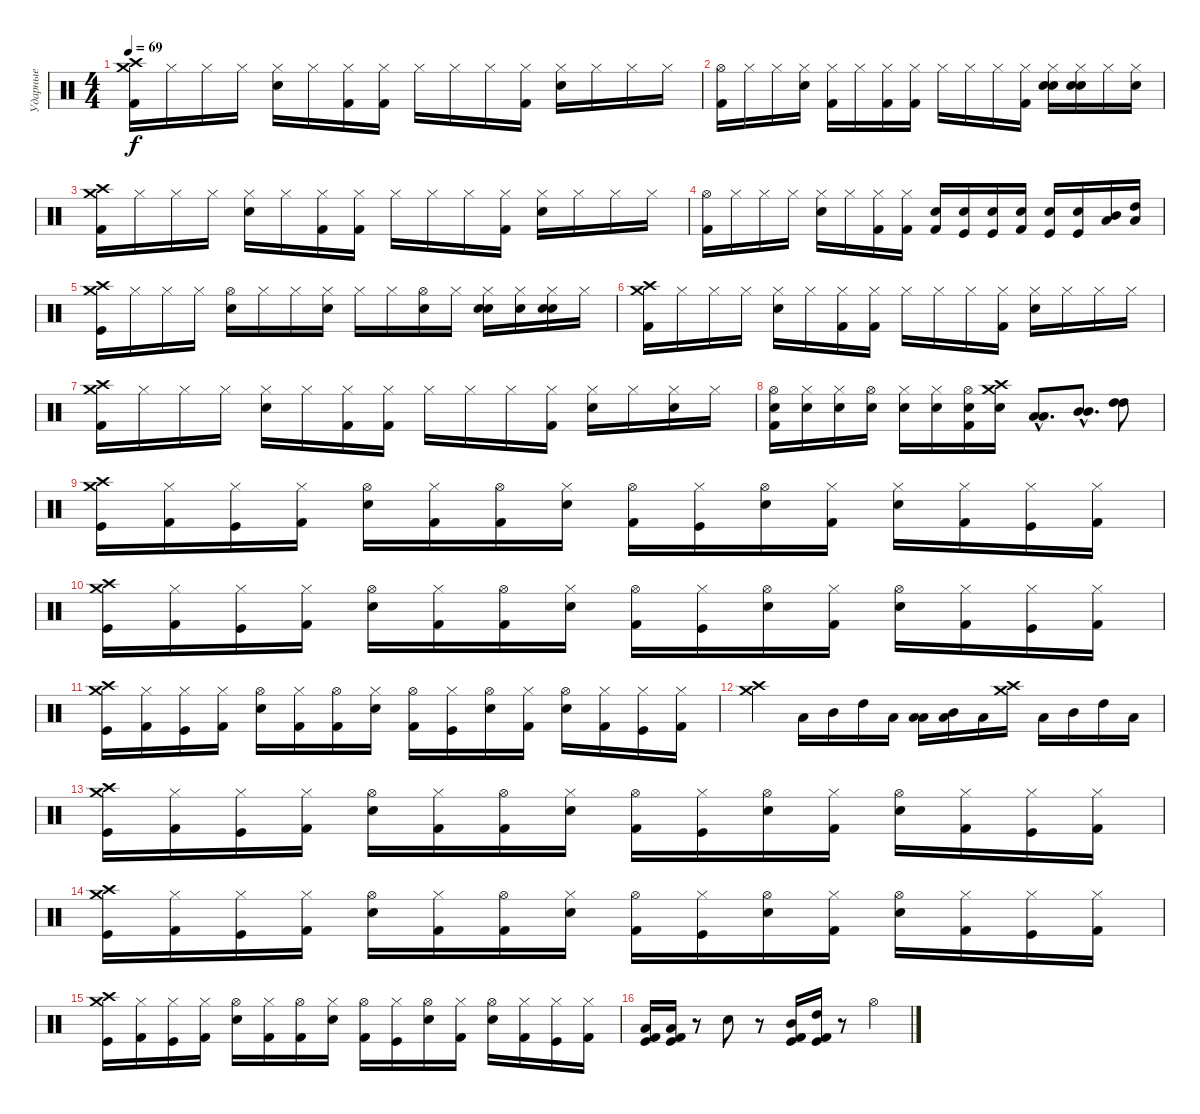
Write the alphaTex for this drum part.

\track ("Ударные" "Ударные") {instrument percussion}
\staff {score}
\articulation defaults
\ts (4 4)
\tempo 69
\clef neutral
\ks c
("Crash high (hit)" "Crash medium (hit)" "Kick (hit) 2").16{dy f} "Hi-Hat (closed)".16 "Hi-Hat (closed)".16 "Hi-Hat (closed)".16 ("Hi-Hat (closed)" "Snare (hit) 2").16 "Hi-Hat (closed)".16 ("Hi-Hat (closed)" "Kick (hit) 2").16 ("Hi-Hat (closed)" "Kick (hit) 2").16 "Hi-Hat (closed)".16 "Hi-Hat (closed)".16 "Hi-Hat (closed)".16 ("Hi-Hat (closed)" "Kick (hit) 2").16 ("Hi-Hat (closed)" "Snare (hit) 2").16 "Hi-Hat (closed)".16 "Hi-Hat (closed)".16 "Hi-Hat (closed)".16 |
("Hi-Hat (open)" "Kick (hit) 2").16 "Hi-Hat (closed)".16 "Hi-Hat (closed)".16 ("Hi-Hat (closed)" "Snare (hit) 2").16 ("Hi-Hat (closed)" "Kick (hit) 2").16 "Hi-Hat (closed)".16 ("Hi-Hat (closed)" "Kick (hit) 2").16 ("Hi-Hat (closed)" "Kick (hit) 2").16 "Hi-Hat (closed)".16 "Hi-Hat (closed)".16 "Hi-Hat (closed)".16 ("Hi-Hat (closed)" "Kick (hit) 2").16 ("Hi-Hat (closed)" "Snare (hit) 2" "Snare (hit) 2").16 ("Hi-Hat (closed)" "Snare (hit) 2" "Snare (hit) 2").16 "Hi-Hat (closed)".16 ("Hi-Hat (closed)" "Snare (hit) 2").16 |
("Crash high (hit)" "Crash medium (hit)" "Kick (hit) 2").16 "Hi-Hat (closed)".16 "Hi-Hat (closed)".16 "Hi-Hat (closed)".16 ("Hi-Hat (closed)" "Snare (hit) 2").16 "Hi-Hat (closed)".16 ("Hi-Hat (closed)" "Kick (hit) 2").16 ("Hi-Hat (closed)" "Kick (hit) 2").16 "Hi-Hat (closed)".16 "Hi-Hat (closed)".16 "Hi-Hat (closed)".16 ("Hi-Hat (closed)" "Kick (hit) 2").16 ("Hi-Hat (closed)" "Snare (hit) 2").16 "Hi-Hat (closed)".16 "Hi-Hat (closed)".16 "Hi-Hat (closed)".16 |
("Hi-Hat (open)" "Kick (hit) 2").16 "Hi-Hat (closed)".16 "Hi-Hat (closed)".16 "Hi-Hat (closed)".16 ("Hi-Hat (closed)" "Snare (hit) 2").16 "Hi-Hat (closed)".16 ("Hi-Hat (closed)" "Kick (hit) 2").16 ("Hi-Hat (closed)" "Kick (hit) 2").16 ("Snare (hit) 2" "Kick (hit) 2").16 ("Snare (hit) 2" "Kick (hit)").16 ("Snare (hit) 2" "Kick (hit)").16 ("Snare (hit) 2" "Kick (hit) 2").16 ("Snare (hit) 2" "Kick (hit)").16 ("Snare (hit) 2" "Kick (hit)").16 ("Low Floor Tom (hit)" "Mid Tom (hit)").16 ("High Tom (hit)" "Low Tom (hit)").16 |
("Crash high (hit)" "Crash medium (hit)" "Kick (hit)").16 "Hi-Hat (closed)".16 "Hi-Hat (closed)".16 "Hi-Hat (closed)".16 ("Hi-Hat (open)" "Snare (hit) 2").16 "Hi-Hat (closed)".16 "Hi-Hat (closed)".16 ("Hi-Hat (closed)" "Snare (hit) 2").16 "Hi-Hat (closed)".16 "Hi-Hat (closed)".16 ("Hi-Hat (open)" "Snare (hit) 2").16 "Hi-Hat (closed)".16 ("Hi-Hat (closed)" "Snare (hit) 2" "Snare (hit) 2").16 ("Hi-Hat (closed)" "Snare (hit) 2").16 ("Hi-Hat (closed)" "Snare (hit) 2" "Snare (hit) 2").16 "Hi-Hat (closed)".16 |
("Crash high (hit)" "Crash medium (hit)" "Kick (hit) 2").16 "Hi-Hat (closed)".16 "Hi-Hat (closed)".16 "Hi-Hat (closed)".16 ("Hi-Hat (closed)" "Snare (hit) 2").16 "Hi-Hat (closed)".16 ("Hi-Hat (closed)" "Kick (hit) 2").16 ("Hi-Hat (closed)" "Kick (hit) 2").16 "Hi-Hat (closed)".16 "Hi-Hat (closed)".16 "Hi-Hat (closed)".16 ("Hi-Hat (closed)" "Kick (hit) 2").16 ("Hi-Hat (closed)" "Snare (hit) 2").16 "Hi-Hat (closed)".16 "Hi-Hat (closed)".16 "Hi-Hat (closed)".16 |
("Crash high (hit)" "Crash medium (hit)" "Kick (hit) 2").16 "Hi-Hat (closed)".16 "Hi-Hat (closed)".16 "Hi-Hat (closed)".16 ("Hi-Hat (closed)" "Snare (hit) 2").16 "Hi-Hat (closed)".16 ("Hi-Hat (closed)" "Kick (hit) 2").16 ("Hi-Hat (closed)" "Kick (hit) 2").16 "Hi-Hat (closed)".16 "Hi-Hat (closed)".16 "Hi-Hat (closed)".16 ("Hi-Hat (closed)" "Kick (hit) 2").16 ("Hi-Hat (closed)" "Snare (hit) 2").16 "Hi-Hat (closed)".16 ("Hi-Hat (closed)" "Snare (hit) 2").16 "Hi-Hat (closed)".16 |
("Hi-Hat (open)" "Snare (hit) 2" "Kick (hit) 2").16 ("Hi-Hat (closed)" "Snare (hit) 2").16 ("Hi-Hat (closed)" "Snare (hit) 2").16 ("Hi-Hat (open)" "Snare (hit) 2").16 ("Hi-Hat (closed)" "Snare (hit) 2").16 ("Hi-Hat (closed)" "Snare (hit) 2").16 ("Hi-Hat (open)" "Snare (hit) 2" "Kick (hit) 2").16 ("Crash high (hit)" "Crash medium (hit)" "Snare (hit) 2").16 ("Low Tom (hit)" "Low Tom (hit)"{hac}).8{d} ("Mid Tom (hit)" "Mid Tom (hit)"{hac}).8{d} ("High Tom (hit)" "High Tom (hit)").8 |
("Crash high (hit)" "Crash medium (hit)" "Kick (hit)").16 ("Hi-Hat (closed)" "Kick (hit) 2").16 ("Hi-Hat (closed)" "Kick (hit)").16 ("Hi-Hat (closed)" "Kick (hit) 2").16 ("Hi-Hat (open)" "Snare (hit) 2").16 ("Hi-Hat (closed)" "Kick (hit) 2").16 ("Hi-Hat (open)" "Kick (hit) 2").16 ("Hi-Hat (closed)" "Snare (hit) 2").16 ("Hi-Hat (open)" "Kick (hit) 2").16 ("Hi-Hat (closed)" "Kick (hit)").16 ("Hi-Hat (open)" "Snare (hit) 2").16 ("Hi-Hat (closed)" "Kick (hit) 2").16 ("Hi-Hat (closed)" "Snare (hit) 2").16 ("Hi-Hat (closed)" "Kick (hit) 2").16 ("Hi-Hat (closed)" "Kick (hit)").16 ("Hi-Hat (closed)" "Kick (hit) 2").16 |
("Crash high (hit)" "Crash medium (hit)" "Kick (hit)").16 ("Hi-Hat (closed)" "Kick (hit) 2").16 ("Hi-Hat (closed)" "Kick (hit)").16 ("Hi-Hat (closed)" "Kick (hit) 2").16 ("Hi-Hat (open)" "Snare (hit) 2").16 ("Hi-Hat (closed)" "Kick (hit) 2").16 ("Hi-Hat (open)" "Kick (hit) 2").16 ("Hi-Hat (closed)" "Snare (hit) 2").16 ("Hi-Hat (open)" "Kick (hit) 2").16 ("Hi-Hat (closed)" "Kick (hit)").16 ("Hi-Hat (open)" "Snare (hit) 2").16 ("Hi-Hat (closed)" "Kick (hit) 2").16 ("Hi-Hat (open)" "Snare (hit) 2").16 ("Hi-Hat (closed)" "Kick (hit) 2").16 ("Hi-Hat (closed)" "Kick (hit)").16 ("Hi-Hat (closed)" "Kick (hit) 2").16 |
("Crash high (hit)" "Crash medium (hit)" "Kick (hit)").16 ("Hi-Hat (closed)" "Kick (hit) 2").16 ("Hi-Hat (closed)" "Kick (hit)").16 ("Hi-Hat (closed)" "Kick (hit) 2").16 ("Hi-Hat (open)" "Snare (hit) 2").16 ("Hi-Hat (closed)" "Kick (hit) 2").16 ("Hi-Hat (open)" "Kick (hit) 2").16 ("Hi-Hat (closed)" "Snare (hit) 2").16 ("Hi-Hat (open)" "Kick (hit) 2").16 ("Hi-Hat (closed)" "Kick (hit)").16 ("Hi-Hat (open)" "Snare (hit) 2").16 ("Hi-Hat (closed)" "Kick (hit) 2").16 ("Hi-Hat (open)" "Snare (hit) 2").16 ("Hi-Hat (closed)" "Kick (hit) 2").16 ("Hi-Hat (closed)" "Kick (hit)").16 ("Hi-Hat (closed)" "Kick (hit) 2").16 |
("Crash high (hit)" "Crash medium (hit)").4 "Low Floor Tom (hit)".16 "Mid Tom (hit)".16 "High Tom (hit)".16 "Low Floor Tom (hit)".16 ("Low Tom (hit)" "Low Floor Tom (hit)").16 ("Low Tom (hit)" "Mid Tom (hit)").16 "Low Tom (hit)".16 ("Crash high (hit)" "Crash medium (hit)").16 "Low Floor Tom (hit)".16 "Mid Tom (hit)".16 "High Tom (hit)".16 "Low Tom (hit)".16 |
("Crash high (hit)" "Crash medium (hit)" "Kick (hit)").16 ("Hi-Hat (closed)" "Kick (hit) 2").16 ("Hi-Hat (closed)" "Kick (hit)").16 ("Hi-Hat (closed)" "Kick (hit) 2").16 ("Hi-Hat (open)" "Snare (hit) 2").16 ("Hi-Hat (closed)" "Kick (hit) 2").16 ("Hi-Hat (open)" "Kick (hit) 2").16 ("Hi-Hat (closed)" "Snare (hit) 2").16 ("Hi-Hat (open)" "Kick (hit) 2").16 ("Hi-Hat (closed)" "Kick (hit)").16 ("Hi-Hat (open)" "Snare (hit) 2").16 ("Hi-Hat (closed)" "Kick (hit) 2").16 ("Hi-Hat (open)" "Snare (hit) 2").16 ("Hi-Hat (closed)" "Kick (hit) 2").16 ("Hi-Hat (closed)" "Kick (hit)").16 ("Hi-Hat (closed)" "Kick (hit) 2").16 |
("Crash high (hit)" "Crash medium (hit)" "Kick (hit)").16 ("Hi-Hat (closed)" "Kick (hit) 2").16 ("Hi-Hat (closed)" "Kick (hit)").16 ("Hi-Hat (closed)" "Kick (hit) 2").16 ("Hi-Hat (open)" "Snare (hit) 2").16 ("Hi-Hat (closed)" "Kick (hit) 2").16 ("Hi-Hat (open)" "Kick (hit) 2").16 ("Hi-Hat (closed)" "Snare (hit) 2").16 ("Hi-Hat (open)" "Kick (hit) 2").16 ("Hi-Hat (closed)" "Kick (hit)").16 ("Hi-Hat (open)" "Snare (hit) 2").16 ("Hi-Hat (closed)" "Kick (hit) 2").16 ("Hi-Hat (open)" "Snare (hit) 2").16 ("Hi-Hat (closed)" "Kick (hit) 2").16 ("Hi-Hat (closed)" "Kick (hit)").16 ("Hi-Hat (closed)" "Kick (hit) 2").16 |
("Crash high (hit)" "Crash medium (hit)" "Kick (hit)").16 ("Hi-Hat (closed)" "Kick (hit) 2").16 ("Hi-Hat (closed)" "Kick (hit)").16 ("Hi-Hat (closed)" "Kick (hit) 2").16 ("Hi-Hat (open)" "Snare (hit) 2").16 ("Hi-Hat (closed)" "Kick (hit) 2").16 ("Hi-Hat (open)" "Kick (hit) 2").16 ("Hi-Hat (closed)" "Snare (hit) 2").16 ("Hi-Hat (open)" "Kick (hit) 2").16 ("Hi-Hat (closed)" "Kick (hit)").16 ("Hi-Hat (open)" "Snare (hit) 2").16 ("Hi-Hat (closed)" "Kick (hit) 2").16 ("Hi-Hat (open)" "Snare (hit) 2").16 ("Hi-Hat (closed)" "Kick (hit) 2").16 ("Hi-Hat (closed)" "Kick (hit)").16 ("Hi-Hat (closed)" "Kick (hit) 2").16 |
("Low Floor Tom (hit)" "Kick (hit)" "Kick (hit) 2").16 ("Low Tom (hit)" "Kick (hit)" "Kick (hit) 2").16 r.8 "Snare (hit) 2".8 r.8 ("Mid Tom (hit)" "Kick (hit)" "Kick (hit) 2").16 ("High Tom (hit)" "Kick (hit)" "Kick (hit) 2").16 r.8 "Hi-Hat (open)".4
